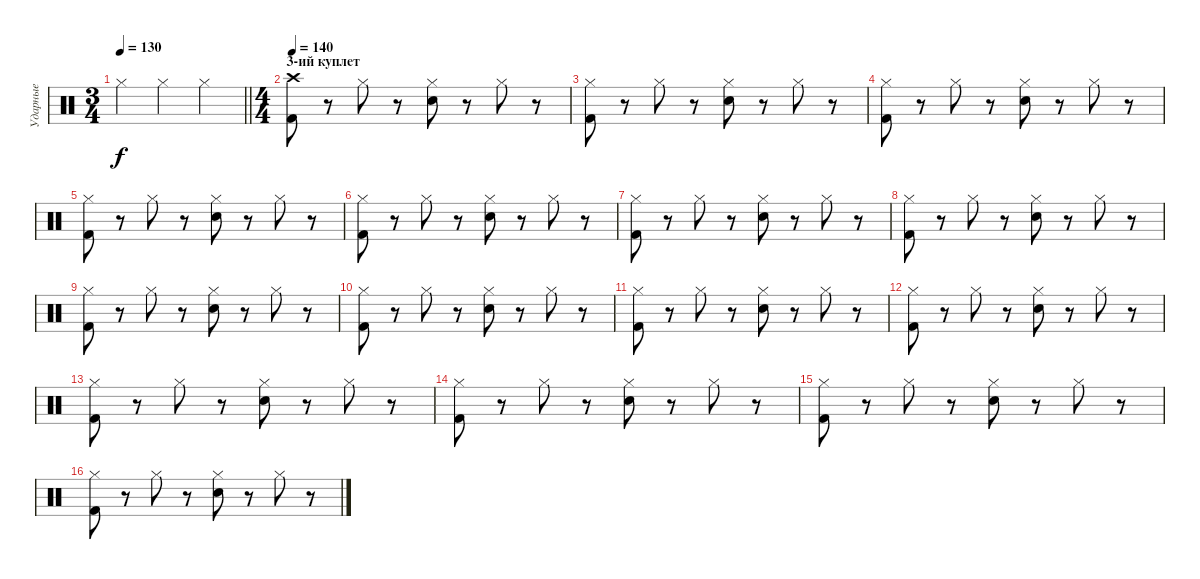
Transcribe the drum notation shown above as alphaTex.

\track ("Ударные" "Ударные") {instrument percussion}
\staff {score}
\articulation defaults
\ts (3 4)
\tempo 130
\clef neutral
\barLineRight lightlight
\ks c "Hi-Hat (closed)".4{dy f} "Hi-Hat (closed)".4 "Hi-Hat (closed)".4
|
\ts (4 4)
\section ("" "3-ий куплет")
\tempo 140
("Kick (hit) 2" "Crash high (hit)").8 r.8 "Hi-Hat (closed)".8 r.8 ("Electric Snare (hit)" "Hi-Hat (closed)").8 r.8 "Hi-Hat (closed)".8 r.8 |
("Kick (hit) 2" "Hi-Hat (closed)").8 r.8 "Hi-Hat (closed)".8 r.8 ("Electric Snare (hit)" "Hi-Hat (closed)").8 r.8 "Hi-Hat (closed)".8 r.8 |
("Kick (hit) 2" "Hi-Hat (closed)").8 r.8 "Hi-Hat (closed)".8 r.8 ("Electric Snare (hit)" "Hi-Hat (closed)").8 r.8 "Hi-Hat (closed)".8 r.8 |
("Kick (hit) 2" "Hi-Hat (closed)").8 r.8 "Hi-Hat (closed)".8 r.8 ("Electric Snare (hit)" "Hi-Hat (closed)").8 r.8 "Hi-Hat (closed)".8 r.8 |
("Kick (hit) 2" "Hi-Hat (closed)").8 r.8 "Hi-Hat (closed)".8 r.8 ("Electric Snare (hit)" "Hi-Hat (closed)").8 r.8 "Hi-Hat (closed)".8 r.8 |
("Kick (hit) 2" "Hi-Hat (closed)").8 r.8 "Hi-Hat (closed)".8 r.8 ("Electric Snare (hit)" "Hi-Hat (closed)").8 r.8 "Hi-Hat (closed)".8 r.8 |
("Kick (hit) 2" "Hi-Hat (closed)").8 r.8 "Hi-Hat (closed)".8 r.8 ("Electric Snare (hit)" "Hi-Hat (closed)").8 r.8 "Hi-Hat (closed)".8 r.8 |
("Kick (hit) 2" "Hi-Hat (closed)").8 r.8 "Hi-Hat (closed)".8 r.8 ("Electric Snare (hit)" "Hi-Hat (closed)").8 r.8 "Hi-Hat (closed)".8 r.8 |
("Kick (hit) 2" "Hi-Hat (closed)").8 r.8 "Hi-Hat (closed)".8 r.8 ("Electric Snare (hit)" "Hi-Hat (closed)").8 r.8 "Hi-Hat (closed)".8 r.8 |
("Kick (hit) 2" "Hi-Hat (closed)").8 r.8 "Hi-Hat (closed)".8 r.8 ("Electric Snare (hit)" "Hi-Hat (closed)").8 r.8 "Hi-Hat (closed)".8 r.8 |
("Kick (hit) 2" "Hi-Hat (closed)").8 r.8 "Hi-Hat (closed)".8 r.8 ("Electric Snare (hit)" "Hi-Hat (closed)").8 r.8 "Hi-Hat (closed)".8 r.8 |
("Kick (hit) 2" "Hi-Hat (closed)").8 r.8 "Hi-Hat (closed)".8 r.8 ("Electric Snare (hit)" "Hi-Hat (closed)").8 r.8 "Hi-Hat (closed)".8 r.8 |
("Kick (hit) 2" "Hi-Hat (closed)").8 r.8 "Hi-Hat (closed)".8 r.8 ("Electric Snare (hit)" "Hi-Hat (closed)").8 r.8 "Hi-Hat (closed)".8 r.8 |
("Kick (hit) 2" "Hi-Hat (closed)").8 r.8 "Hi-Hat (closed)".8 r.8 ("Electric Snare (hit)" "Hi-Hat (closed)").8 r.8 "Hi-Hat (closed)".8 r.8 |
("Kick (hit) 2" "Hi-Hat (closed)").8 r.8 "Hi-Hat (closed)".8 r.8 ("Electric Snare (hit)" "Hi-Hat (closed)").8 r.8 "Hi-Hat (closed)".8 r.8
